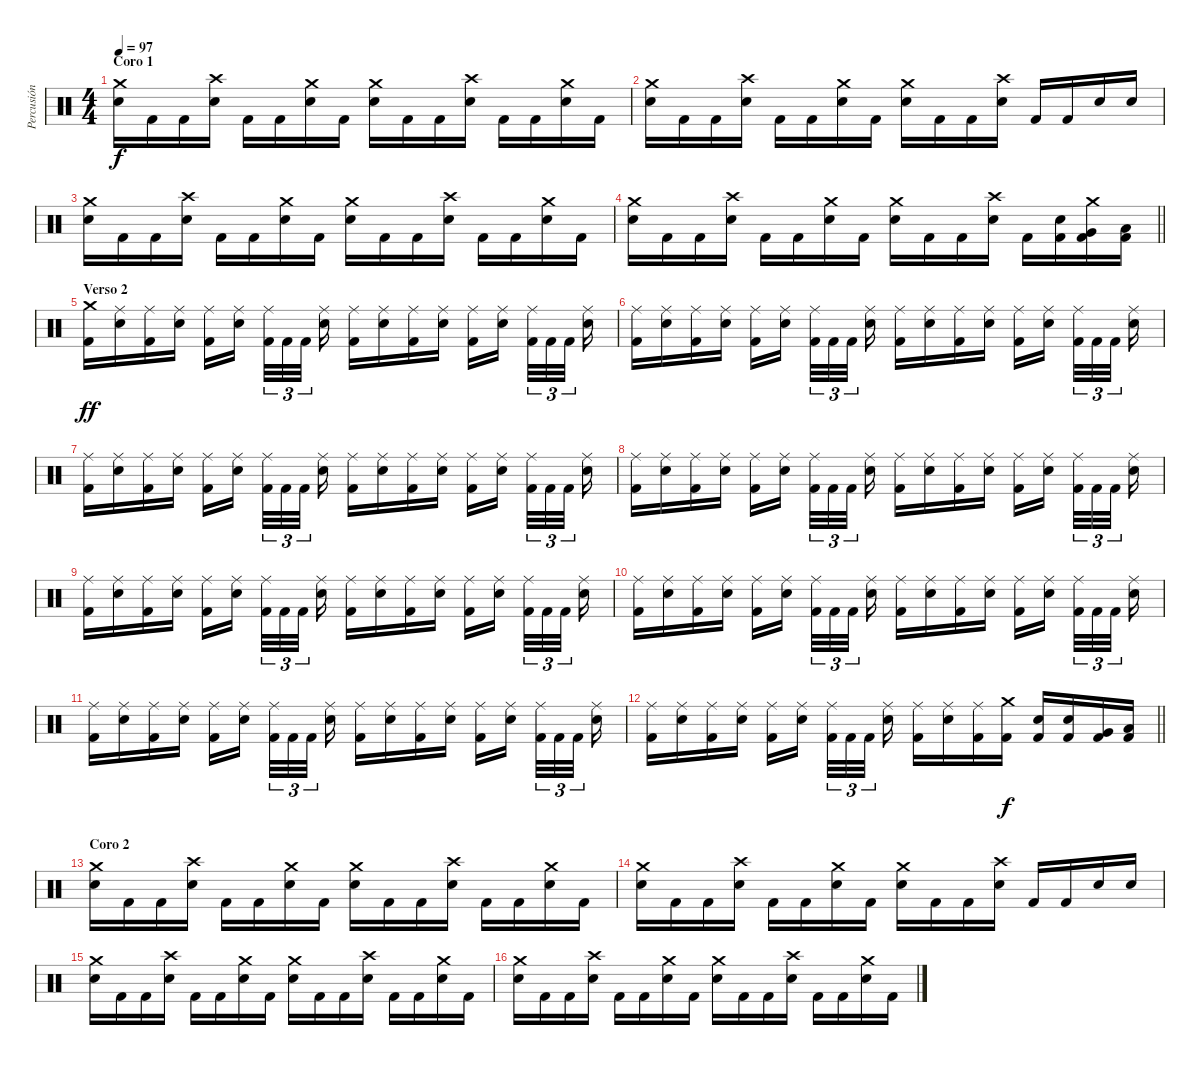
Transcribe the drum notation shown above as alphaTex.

\track ("Percusión" "Percusión") {instrument percussion}
\staff {score}
\articulation defaults
\ts (4 4)
\section ("" "Coro 1")
\tempo 97
\clef neutral
\ks c
("Crash medium (hit)" "Electric Snare (hit)").16{dy f} "Kick (hit) 2".16 "Kick (hit) 2".16 ("Crash high (hit)" "Electric Snare (hit)").16 "Kick (hit) 2".16 "Kick (hit) 2".16 ("Crash medium (hit)" "Electric Snare (hit)").16 "Kick (hit) 2".16 ("Crash medium (hit)" "Electric Snare (hit)").16 "Kick (hit) 2".16 "Kick (hit) 2".16 ("Crash high (hit)" "Electric Snare (hit)").16 "Kick (hit) 2".16 "Kick (hit) 2".16 ("Crash medium (hit)" "Electric Snare (hit)").16 "Kick (hit) 2".16 |
("Crash medium (hit)" "Electric Snare (hit)").16 "Kick (hit) 2".16 "Kick (hit) 2".16 ("Crash high (hit)" "Electric Snare (hit)").16 "Kick (hit) 2".16 "Kick (hit) 2".16 ("Crash medium (hit)" "Electric Snare (hit)").16 "Kick (hit) 2".16 ("Crash medium (hit)" "Electric Snare (hit)").16 "Kick (hit) 2".16 "Kick (hit) 2".16 ("Crash high (hit)" "Electric Snare (hit)").16 "Kick (hit) 2".16 "Kick (hit) 2".16 "Electric Snare (hit)".16 "Electric Snare (hit)".16 |
("Crash medium (hit)" "Electric Snare (hit)").16 "Kick (hit) 2".16 "Kick (hit) 2".16 ("Crash high (hit)" "Electric Snare (hit)").16 "Kick (hit) 2".16 "Kick (hit) 2".16 ("Crash medium (hit)" "Electric Snare (hit)").16 "Kick (hit) 2".16 ("Crash medium (hit)" "Electric Snare (hit)").16 "Kick (hit) 2".16 "Kick (hit) 2".16 ("Crash high (hit)" "Electric Snare (hit)").16 "Kick (hit) 2".16 "Kick (hit) 2".16 ("Crash medium (hit)" "Electric Snare (hit)").16 "Kick (hit) 2".16 |
\barLineRight lightlight
("Crash medium (hit)" "Electric Snare (hit)").16 "Kick (hit) 2".16 "Kick (hit) 2".16 ("Crash high (hit)" "Electric Snare (hit)").16 "Kick (hit) 2".16 "Kick (hit) 2".16 ("Crash medium (hit)" "Electric Snare (hit)").16 "Kick (hit) 2".16 ("Crash medium (hit)" "Electric Snare (hit)").16 "Kick (hit) 2".16 "Kick (hit) 2".16 ("Crash high (hit)" "Electric Snare (hit)").16 "Kick (hit) 2".16 ("Snare (hit) 2" "Kick (hit) 2").16 ("Crash medium (hit)" "Very Low Tom (hit)" "Kick (hit) 2").16 ("Low Tom (hit)" "Kick (hit) 2").16 |
\section ("" "Verso 2")
("Crash medium (hit)" "Kick (hit) 2").16{dy ff} ("Ride (middle)" "Snare (hit) 2").16 ("Ride (middle)" "Kick (hit) 2").16 ("Ride (middle)" "Snare (hit) 2").16 ("Ride (middle)" "Kick (hit) 2").16 ("Ride (middle)" "Snare (hit) 2").16{beam splitsecondary} ("Ride (middle)" "Kick (hit) 2").32{tu (3 2)} "Kick (hit) 2".32{tu (3 2)} "Kick (hit) 2".32{tu (3 2) beam splitsecondary} ("Ride (middle)" "Snare (hit) 2").16 ("Ride (middle)" "Kick (hit) 2").16 ("Ride (middle)" "Snare (hit) 2").16 ("Ride (middle)" "Kick (hit) 2").16 ("Ride (middle)" "Snare (hit) 2").16 ("Ride (middle)" "Kick (hit) 2").16 ("Ride (middle)" "Snare (hit) 2").16{beam splitsecondary} ("Ride (middle)" "Kick (hit) 2").32{tu (3 2)} "Kick (hit) 2".32{tu (3 2)} "Kick (hit) 2".32{tu (3 2) beam splitsecondary} ("Ride (middle)" "Snare (hit) 2").16 |
("Ride (middle)" "Kick (hit) 2").16 ("Ride (middle)" "Snare (hit) 2").16 ("Ride (middle)" "Kick (hit) 2").16 ("Ride (middle)" "Snare (hit) 2").16 ("Ride (middle)" "Kick (hit) 2").16 ("Ride (middle)" "Snare (hit) 2").16{beam splitsecondary} ("Ride (middle)" "Kick (hit) 2").32{tu (3 2)} "Kick (hit) 2".32{tu (3 2)} "Kick (hit) 2".32{tu (3 2) beam splitsecondary} ("Ride (middle)" "Snare (hit) 2").16 ("Ride (middle)" "Kick (hit) 2").16 ("Ride (middle)" "Snare (hit) 2").16 ("Ride (middle)" "Kick (hit) 2").16 ("Ride (middle)" "Snare (hit) 2").16 ("Ride (middle)" "Kick (hit) 2").16 ("Ride (middle)" "Snare (hit) 2").16{beam splitsecondary} ("Ride (middle)" "Kick (hit) 2").32{tu (3 2)} "Kick (hit) 2".32{tu (3 2)} "Kick (hit) 2".32{tu (3 2) beam splitsecondary} ("Ride (middle)" "Snare (hit) 2").16 |
("Ride (middle)" "Kick (hit) 2").16 ("Ride (middle)" "Snare (hit) 2").16 ("Ride (middle)" "Kick (hit) 2").16 ("Ride (middle)" "Snare (hit) 2").16 ("Ride (middle)" "Kick (hit) 2").16 ("Ride (middle)" "Snare (hit) 2").16{beam splitsecondary} ("Ride (middle)" "Kick (hit) 2").32{tu (3 2)} "Kick (hit) 2".32{tu (3 2)} "Kick (hit) 2".32{tu (3 2) beam splitsecondary} ("Ride (middle)" "Snare (hit) 2").16 ("Ride (middle)" "Kick (hit) 2").16 ("Ride (middle)" "Snare (hit) 2").16 ("Ride (middle)" "Kick (hit) 2").16 ("Ride (middle)" "Snare (hit) 2").16 ("Ride (middle)" "Kick (hit) 2").16 ("Ride (middle)" "Snare (hit) 2").16{beam splitsecondary} ("Ride (middle)" "Kick (hit) 2").32{tu (3 2)} "Kick (hit) 2".32{tu (3 2)} "Kick (hit) 2".32{tu (3 2) beam splitsecondary} ("Ride (middle)" "Snare (hit) 2").16 |
("Ride (middle)" "Kick (hit) 2").16 ("Ride (middle)" "Snare (hit) 2").16 ("Ride (middle)" "Kick (hit) 2").16 ("Ride (middle)" "Snare (hit) 2").16 ("Ride (middle)" "Kick (hit) 2").16 ("Ride (middle)" "Snare (hit) 2").16{beam splitsecondary} ("Ride (middle)" "Kick (hit) 2").32{tu (3 2)} "Kick (hit) 2".32{tu (3 2)} "Kick (hit) 2".32{tu (3 2) beam splitsecondary} ("Ride (middle)" "Snare (hit) 2").16 ("Ride (middle)" "Kick (hit) 2").16 ("Ride (middle)" "Snare (hit) 2").16 ("Ride (middle)" "Kick (hit) 2").16 ("Ride (middle)" "Snare (hit) 2").16 ("Ride (middle)" "Kick (hit) 2").16 ("Ride (middle)" "Snare (hit) 2").16{beam splitsecondary} ("Ride (middle)" "Kick (hit) 2").32{tu (3 2)} "Kick (hit) 2".32{tu (3 2)} "Kick (hit) 2".32{tu (3 2) beam splitsecondary} ("Ride (middle)" "Snare (hit) 2").16 |
("Ride (middle)" "Kick (hit) 2").16 ("Ride (middle)" "Snare (hit) 2").16 ("Ride (middle)" "Kick (hit) 2").16 ("Ride (middle)" "Snare (hit) 2").16 ("Ride (middle)" "Kick (hit) 2").16 ("Ride (middle)" "Snare (hit) 2").16{beam splitsecondary} ("Ride (middle)" "Kick (hit) 2").32{tu (3 2)} "Kick (hit) 2".32{tu (3 2)} "Kick (hit) 2".32{tu (3 2) beam splitsecondary} ("Ride (middle)" "Snare (hit) 2").16 ("Ride (middle)" "Kick (hit) 2").16 ("Ride (middle)" "Snare (hit) 2").16 ("Ride (middle)" "Kick (hit) 2").16 ("Ride (middle)" "Snare (hit) 2").16 ("Ride (middle)" "Kick (hit) 2").16 ("Ride (middle)" "Snare (hit) 2").16{beam splitsecondary} ("Ride (middle)" "Kick (hit) 2").32{tu (3 2)} "Kick (hit) 2".32{tu (3 2)} "Kick (hit) 2".32{tu (3 2) beam splitsecondary} ("Ride (middle)" "Snare (hit) 2").16 |
("Ride (middle)" "Kick (hit) 2").16 ("Ride (middle)" "Snare (hit) 2").16 ("Ride (middle)" "Kick (hit) 2").16 ("Ride (middle)" "Snare (hit) 2").16 ("Ride (middle)" "Kick (hit) 2").16 ("Ride (middle)" "Snare (hit) 2").16{beam splitsecondary} ("Ride (middle)" "Kick (hit) 2").32{tu (3 2)} "Kick (hit) 2".32{tu (3 2)} "Kick (hit) 2".32{tu (3 2) beam splitsecondary} ("Ride (middle)" "Snare (hit) 2").16 ("Ride (middle)" "Kick (hit) 2").16 ("Ride (middle)" "Snare (hit) 2").16 ("Ride (middle)" "Kick (hit) 2").16 ("Ride (middle)" "Snare (hit) 2").16 ("Ride (middle)" "Kick (hit) 2").16 ("Ride (middle)" "Snare (hit) 2").16{beam splitsecondary} ("Ride (middle)" "Kick (hit) 2").32{tu (3 2)} "Kick (hit) 2".32{tu (3 2)} "Kick (hit) 2".32{tu (3 2) beam splitsecondary} ("Ride (middle)" "Snare (hit) 2").16 |
("Ride (middle)" "Kick (hit) 2").16 ("Ride (middle)" "Snare (hit) 2").16 ("Ride (middle)" "Kick (hit) 2").16 ("Ride (middle)" "Snare (hit) 2").16 ("Ride (middle)" "Kick (hit) 2").16 ("Ride (middle)" "Snare (hit) 2").16{beam splitsecondary} ("Ride (middle)" "Kick (hit) 2").32{tu (3 2)} "Kick (hit) 2".32{tu (3 2)} "Kick (hit) 2".32{tu (3 2) beam splitsecondary} ("Ride (middle)" "Snare (hit) 2").16 ("Ride (middle)" "Kick (hit) 2").16 ("Ride (middle)" "Snare (hit) 2").16 ("Ride (middle)" "Kick (hit) 2").16 ("Ride (middle)" "Snare (hit) 2").16 ("Ride (middle)" "Kick (hit) 2").16 ("Ride (middle)" "Snare (hit) 2").16{beam splitsecondary} ("Ride (middle)" "Kick (hit) 2").32{tu (3 2)} "Kick (hit) 2".32{tu (3 2)} "Kick (hit) 2".32{tu (3 2) beam splitsecondary} ("Ride (middle)" "Snare (hit) 2").16 |
\barLineRight lightlight
("Ride (middle)" "Kick (hit) 2").16 ("Ride (middle)" "Snare (hit) 2").16 ("Ride (middle)" "Kick (hit) 2").16 ("Ride (middle)" "Snare (hit) 2").16 ("Ride (middle)" "Kick (hit) 2").16 ("Ride (middle)" "Snare (hit) 2").16{beam splitsecondary} ("Ride (middle)" "Kick (hit) 2").32{tu (3 2)} "Kick (hit) 2".32{tu (3 2)} "Kick (hit) 2".32{tu (3 2) beam splitsecondary} ("Ride (middle)" "Snare (hit) 2").16 ("Ride (middle)" "Kick (hit) 2").16 ("Ride (middle)" "Snare (hit) 2").16 ("Ride (middle)" "Kick (hit) 2").16 ("Crash medium (hit)" "Kick (hit) 2").16{dy f} ("Snare (hit) 2" "Kick (hit) 2").16 ("Snare (hit) 2" "Kick (hit) 2").16 ("Very Low Tom (hit)" "Kick (hit) 2").16 ("Low Tom (hit)" "Kick (hit) 2").16 |
\section ("" "Coro 2")
("Crash medium (hit)" "Electric Snare (hit)").16 "Kick (hit) 2".16 "Kick (hit) 2".16 ("Crash high (hit)" "Electric Snare (hit)").16 "Kick (hit) 2".16 "Kick (hit) 2".16 ("Crash medium (hit)" "Electric Snare (hit)").16 "Kick (hit) 2".16 ("Crash medium (hit)" "Electric Snare (hit)").16 "Kick (hit) 2".16 "Kick (hit) 2".16 ("Crash high (hit)" "Electric Snare (hit)").16 "Kick (hit) 2".16 "Kick (hit) 2".16 ("Crash medium (hit)" "Electric Snare (hit)").16 "Kick (hit) 2".16 |
("Crash medium (hit)" "Electric Snare (hit)").16 "Kick (hit) 2".16 "Kick (hit) 2".16 ("Crash high (hit)" "Electric Snare (hit)").16 "Kick (hit) 2".16 "Kick (hit) 2".16 ("Crash medium (hit)" "Electric Snare (hit)").16 "Kick (hit) 2".16 ("Crash medium (hit)" "Electric Snare (hit)").16 "Kick (hit) 2".16 "Kick (hit) 2".16 ("Crash high (hit)" "Electric Snare (hit)").16 "Kick (hit) 2".16 "Kick (hit) 2".16 "Electric Snare (hit)".16 "Electric Snare (hit)".16 |
("Crash medium (hit)" "Electric Snare (hit)").16 "Kick (hit) 2".16 "Kick (hit) 2".16 ("Crash high (hit)" "Electric Snare (hit)").16 "Kick (hit) 2".16 "Kick (hit) 2".16 ("Crash medium (hit)" "Electric Snare (hit)").16 "Kick (hit) 2".16 ("Crash medium (hit)" "Electric Snare (hit)").16 "Kick (hit) 2".16 "Kick (hit) 2".16 ("Crash high (hit)" "Electric Snare (hit)").16 "Kick (hit) 2".16 "Kick (hit) 2".16 ("Crash medium (hit)" "Electric Snare (hit)").16 "Kick (hit) 2".16 |
("Crash medium (hit)" "Electric Snare (hit)").16 "Kick (hit) 2".16 "Kick (hit) 2".16 ("Crash high (hit)" "Electric Snare (hit)").16 "Kick (hit) 2".16 "Kick (hit) 2".16 ("Crash medium (hit)" "Electric Snare (hit)").16 "Kick (hit) 2".16 ("Crash medium (hit)" "Electric Snare (hit)").16 "Kick (hit) 2".16 "Kick (hit) 2".16 ("Crash high (hit)" "Electric Snare (hit)").16 "Kick (hit) 2".16 "Kick (hit) 2".16 ("Crash medium (hit)" "Electric Snare (hit)").16 "Kick (hit) 2".16
